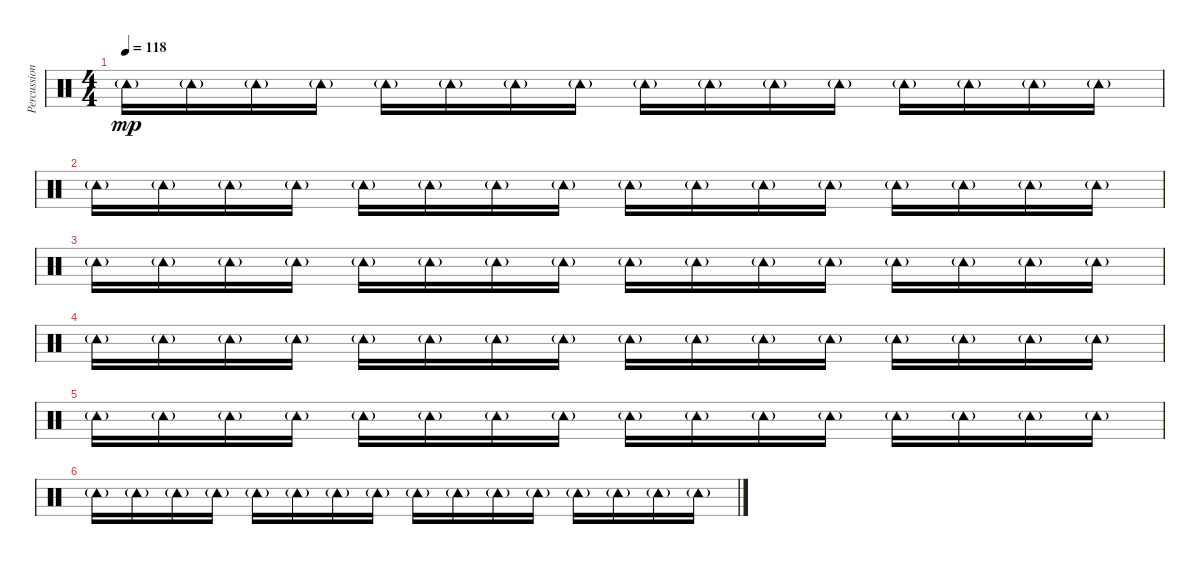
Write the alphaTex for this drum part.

\track ("Percussion 2" "Percussion") {instrument percussion}
\staff {score}
\articulation defaults
\ts (4 4)
\tempo 118
\clef neutral
\ks c "Tambourine (hit)"{g}.16{dy mp} "Tambourine (hit)"{g}.16 "Tambourine (hit)"{g}.16 "Tambourine (hit)"{g}.16 "Tambourine (hit)"{g}.16 "Tambourine (hit)"{g}.16 "Tambourine (hit)"{g}.16 "Tambourine (hit)"{g}.16 "Tambourine (hit)"{g}.16 "Tambourine (hit)"{g}.16 "Tambourine (hit)"{g}.16 "Tambourine (hit)"{g}.16 "Tambourine (hit)"{g}.16 "Tambourine (hit)"{g}.16 "Tambourine (hit)"{g}.16 "Tambourine (hit)"{g}.16
|
"Tambourine (hit)"{g}.16 "Tambourine (hit)"{g}.16 "Tambourine (hit)"{g}.16 "Tambourine (hit)"{g}.16 "Tambourine (hit)"{g}.16 "Tambourine (hit)"{g}.16 "Tambourine (hit)"{g}.16 "Tambourine (hit)"{g}.16 "Tambourine (hit)"{g}.16 "Tambourine (hit)"{g}.16 "Tambourine (hit)"{g}.16 "Tambourine (hit)"{g}.16 "Tambourine (hit)"{g}.16 "Tambourine (hit)"{g}.16 "Tambourine (hit)"{g}.16 "Tambourine (hit)"{g}.16 |
"Tambourine (hit)"{g}.16 "Tambourine (hit)"{g}.16 "Tambourine (hit)"{g}.16 "Tambourine (hit)"{g}.16 "Tambourine (hit)"{g}.16 "Tambourine (hit)"{g}.16 "Tambourine (hit)"{g}.16 "Tambourine (hit)"{g}.16 "Tambourine (hit)"{g}.16 "Tambourine (hit)"{g}.16 "Tambourine (hit)"{g}.16 "Tambourine (hit)"{g}.16 "Tambourine (hit)"{g}.16 "Tambourine (hit)"{g}.16 "Tambourine (hit)"{g}.16 "Tambourine (hit)"{g}.16 |
"Tambourine (hit)"{g}.16 "Tambourine (hit)"{g}.16 "Tambourine (hit)"{g}.16 "Tambourine (hit)"{g}.16 "Tambourine (hit)"{g}.16 "Tambourine (hit)"{g}.16 "Tambourine (hit)"{g}.16 "Tambourine (hit)"{g}.16 "Tambourine (hit)"{g}.16 "Tambourine (hit)"{g}.16 "Tambourine (hit)"{g}.16 "Tambourine (hit)"{g}.16 "Tambourine (hit)"{g}.16 "Tambourine (hit)"{g}.16 "Tambourine (hit)"{g}.16 "Tambourine (hit)"{g}.16 |
"Tambourine (hit)"{g}.16 "Tambourine (hit)"{g}.16 "Tambourine (hit)"{g}.16 "Tambourine (hit)"{g}.16 "Tambourine (hit)"{g}.16 "Tambourine (hit)"{g}.16 "Tambourine (hit)"{g}.16 "Tambourine (hit)"{g}.16 "Tambourine (hit)"{g}.16 "Tambourine (hit)"{g}.16 "Tambourine (hit)"{g}.16 "Tambourine (hit)"{g}.16 "Tambourine (hit)"{g}.16 "Tambourine (hit)"{g}.16 "Tambourine (hit)"{g}.16 "Tambourine (hit)"{g}.16 |
"Tambourine (hit)"{g}.16 "Tambourine (hit)"{g}.16 "Tambourine (hit)"{g}.16 "Tambourine (hit)"{g}.16 "Tambourine (hit)"{g}.16 "Tambourine (hit)"{g}.16 "Tambourine (hit)"{g}.16 "Tambourine (hit)"{g}.16 "Tambourine (hit)"{g}.16 "Tambourine (hit)"{g}.16 "Tambourine (hit)"{g}.16 "Tambourine (hit)"{g}.16 "Tambourine (hit)"{g}.16 "Tambourine (hit)"{g}.16 "Tambourine (hit)"{g}.16 "Tambourine (hit)"{g}.16
